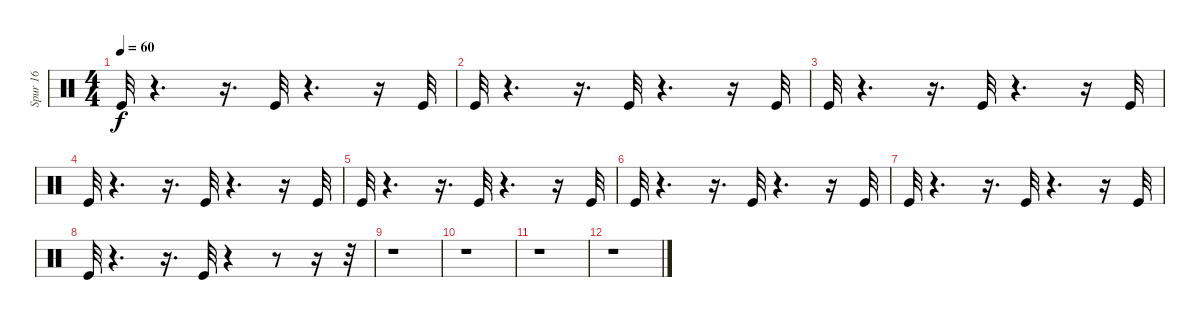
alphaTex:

\track ("Spur 16" "Spur 16") {instrument percussion}
\staff {score}
\articulation defaults
\ts (4 4)
\tempo 60
\clef neutral
\ks c "Kick (hit)".32{dy f}
r.4{d} r.16{d} "Kick (hit)".32 r.4{d} r.16 "Kick (hit)".32 |
"Kick (hit)".32 r.4{d} r.16{d} "Kick (hit)".32 r.4{d} r.16 "Kick (hit)".32 |
"Kick (hit)".32 r.4{d} r.16{d} "Kick (hit)".32 r.4{d} r.16 "Kick (hit)".32 |
"Kick (hit)".32 r.4{d} r.16{d} "Kick (hit)".32 r.4{d} r.16 "Kick (hit)".32 |
"Kick (hit)".32 r.4{d} r.16{d} "Kick (hit)".32 r.4{d} r.16 "Kick (hit)".32 |
"Kick (hit)".32 r.4{d} r.16{d} "Kick (hit)".32 r.4{d} r.16 "Kick (hit)".32 |
"Kick (hit)".32 r.4{d} r.16{d} "Kick (hit)".32 r.4{d} r.16 "Kick (hit)".32 |
"Kick (hit)".32 r.4{d} r.16{d} "Kick (hit)".32 r.4 r.8 r.16 r.32 |
r.1 |
r.1 |
r.1 |
r.1
